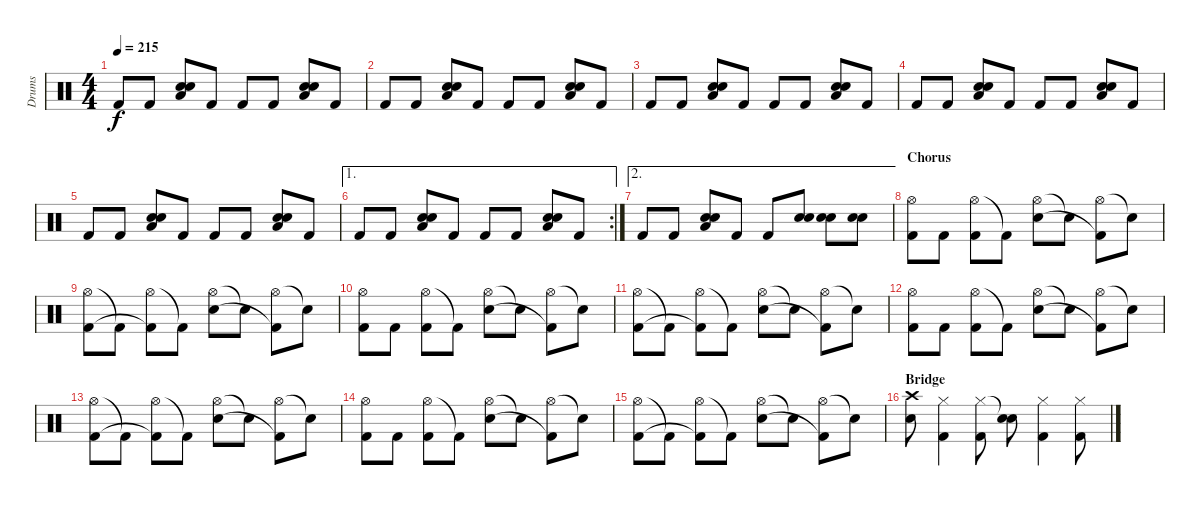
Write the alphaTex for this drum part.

\track ("Drums" "Drums") {instrument percussion}
\staff {score}
\articulation defaults
\ts (4 4)
\tempo 215
\clef neutral
\ks c "Kick (hit) 2".8{dy f} "Kick (hit) 2".8
("Low Floor Tom (hit)" "Electric Snare (hit)" "Electric Snare (hit)").8 "Kick (hit) 2".8 "Kick (hit) 2".8 "Kick (hit) 2".8 ("Low Floor Tom (hit)" "Electric Snare (hit)" "Electric Snare (hit)").8 "Kick (hit) 2".8 |
"Kick (hit) 2".8 "Kick (hit) 2".8 ("Low Floor Tom (hit)" "Electric Snare (hit)" "Electric Snare (hit)").8 "Kick (hit) 2".8 "Kick (hit) 2".8 "Kick (hit) 2".8 ("Low Floor Tom (hit)" "Electric Snare (hit)" "Electric Snare (hit)").8 "Kick (hit) 2".8 |
"Kick (hit) 2".8 "Kick (hit) 2".8 ("Low Floor Tom (hit)" "Electric Snare (hit)" "Electric Snare (hit)").8 "Kick (hit) 2".8 "Kick (hit) 2".8 "Kick (hit) 2".8 ("Low Floor Tom (hit)" "Electric Snare (hit)" "Electric Snare (hit)").8 "Kick (hit) 2".8 |
"Kick (hit) 2".8 "Kick (hit) 2".8 ("Low Floor Tom (hit)" "Electric Snare (hit)" "Electric Snare (hit)").8 "Kick (hit) 2".8 "Kick (hit) 2".8 "Kick (hit) 2".8 ("Low Floor Tom (hit)" "Electric Snare (hit)" "Electric Snare (hit)").8 "Kick (hit) 2".8 |
"Kick (hit) 2".8 "Kick (hit) 2".8 ("Low Floor Tom (hit)" "Electric Snare (hit)" "Electric Snare (hit)").8 "Kick (hit) 2".8 "Kick (hit) 2".8 "Kick (hit) 2".8 ("Low Floor Tom (hit)" "Electric Snare (hit)" "Electric Snare (hit)").8 "Kick (hit) 2".8 |
\ae 1
\rc 2 "Kick (hit) 2".8 "Kick (hit) 2".8
("Low Floor Tom (hit)" "Electric Snare (hit)" "Electric Snare (hit)").8 "Kick (hit) 2".8 "Kick (hit) 2".8 "Kick (hit) 2".8 ("Low Floor Tom (hit)" "Electric Snare (hit)" "Electric Snare (hit)").8 "Kick (hit) 2".8 |
\ae 2 "Kick (hit) 2".8 "Kick (hit) 2".8
("Low Floor Tom (hit)" "Electric Snare (hit)" "Electric Snare (hit)").8 "Kick (hit) 2".8 "Kick (hit) 2".8 ("Electric Snare (hit)" "Electric Snare (hit)").8 ("Electric Snare (hit)" "Electric Snare (hit)").8 ("Electric Snare (hit)" "Electric Snare (hit)").8 |
\section ("" "Chorus")
("Hi-Hat (open)" "Kick (hit) 2").8 "Kick (hit) 2".8 ("Hi-Hat (open)" "Kick (hit) 2").8 "Kick (hit) 2"{t}.8 ("Hi-Hat (open)" "Electric Snare (hit)").8 "Snare (hit)"{t}.8 ("Hi-Hat (open)" "Kick (hit) 2"{t}).8 "Snare (hit)"{t}.8 |
("Hi-Hat (open)" "Kick (hit) 2").8 "Kick (hit) 2"{t}.8 ("Hi-Hat (open)" "Kick (hit) 2"{t}).8 "Kick (hit) 2"{t}.8 ("Hi-Hat (open)" "Electric Snare (hit)").8 "Snare (hit)"{t}.8 ("Hi-Hat (open)" "Kick (hit) 2"{t}).8 "Snare (hit)"{t}.8 |
("Hi-Hat (open)" "Kick (hit) 2").8 "Kick (hit) 2".8 ("Hi-Hat (open)" "Kick (hit) 2").8 "Kick (hit) 2"{t}.8 ("Hi-Hat (open)" "Electric Snare (hit)").8 "Snare (hit)"{t}.8 ("Hi-Hat (open)" "Kick (hit) 2"{t}).8 "Snare (hit)"{t}.8 |
("Hi-Hat (open)" "Kick (hit) 2").8 "Kick (hit) 2"{t}.8 ("Hi-Hat (open)" "Kick (hit) 2"{t}).8 "Kick (hit) 2"{t}.8 ("Hi-Hat (open)" "Electric Snare (hit)").8 "Snare (hit)"{t}.8 ("Hi-Hat (open)" "Kick (hit) 2"{t}).8 "Snare (hit)"{t}.8 |
("Hi-Hat (open)" "Kick (hit) 2").8 "Kick (hit) 2".8 ("Hi-Hat (open)" "Kick (hit) 2").8 "Kick (hit) 2"{t}.8 ("Hi-Hat (open)" "Electric Snare (hit)").8 "Snare (hit)"{t}.8 ("Hi-Hat (open)" "Kick (hit) 2"{t}).8 "Snare (hit)"{t}.8 |
("Hi-Hat (open)" "Kick (hit) 2").8 "Kick (hit) 2"{t}.8 ("Hi-Hat (open)" "Kick (hit) 2"{t}).8 "Kick (hit) 2"{t}.8 ("Hi-Hat (open)" "Electric Snare (hit)").8 "Snare (hit)"{t}.8 ("Hi-Hat (open)" "Kick (hit) 2"{t}).8 "Snare (hit)"{t}.8 |
("Hi-Hat (open)" "Kick (hit) 2").8 "Kick (hit) 2".8 ("Hi-Hat (open)" "Kick (hit) 2").8 "Kick (hit) 2"{t}.8 ("Hi-Hat (open)" "Electric Snare (hit)").8 "Snare (hit)"{t}.8 ("Hi-Hat (open)" "Kick (hit) 2"{t}).8 "Snare (hit)"{t}.8 |
("Hi-Hat (open)" "Kick (hit) 2").8 "Kick (hit) 2"{t}.8 ("Hi-Hat (open)" "Kick (hit) 2"{t}).8 "Kick (hit) 2"{t}.8 ("Hi-Hat (open)" "Electric Snare (hit)").8 "Snare (hit)"{t}.8 ("Hi-Hat (open)" "Kick (hit) 2"{t}).8 "Snare (hit)"{t}.8 |
\section ("" "Bridge")
("Crash high (hit)" "Electric Snare (hit)").8 ("Hi-Hat (closed)" "Kick (hit) 2").4 ("Hi-Hat (closed)" "Kick (hit) 2").8 ("Snare (hit)"{t} "Electric Snare (hit)").8 ("Hi-Hat (closed)" "Kick (hit) 2").4 ("Hi-Hat (closed)" "Kick (hit) 2").8
